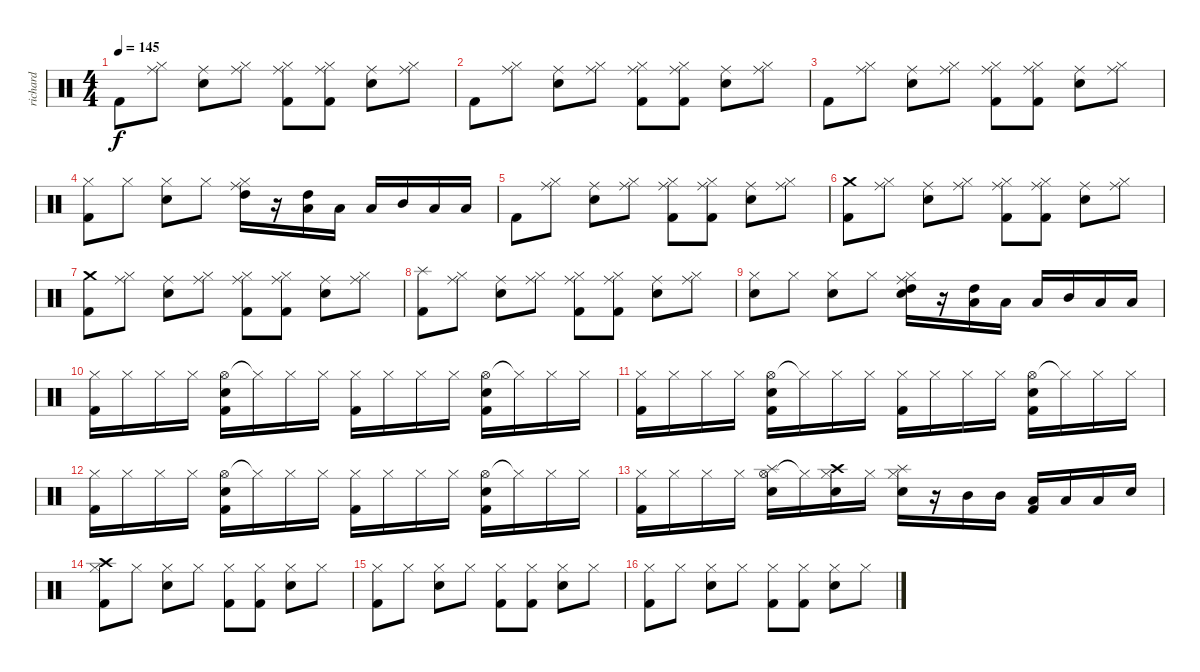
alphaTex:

\track ("richard" "richard") {instrument percussion}
\staff {score}
\articulation defaults
\ts (4 4)
\tempo 145
\clef neutral
\ks c "Kick (hit) 2".8{dy f}
("Ride (middle)" "Hi-Hat (closed)").8 ("Ride (middle)" "Snare (hit) 2").8 ("Ride (middle)" "Hi-Hat (closed)").8 ("Ride (middle)" "Kick (hit) 2" "Hi-Hat (closed)").8 ("Ride (middle)" "Kick (hit) 2" "Hi-Hat (closed)").8 ("Ride (middle)" "Snare (hit) 2").8 ("Ride (middle)" "Hi-Hat (closed)").8 |
"Kick (hit) 2".8 ("Ride (middle)" "Hi-Hat (closed)").8 ("Ride (middle)" "Snare (hit) 2").8 ("Ride (middle)" "Hi-Hat (closed)").8 ("Ride (middle)" "Kick (hit) 2" "Hi-Hat (closed)").8 ("Ride (middle)" "Kick (hit) 2" "Hi-Hat (closed)").8 ("Ride (middle)" "Snare (hit) 2").8 ("Ride (middle)" "Hi-Hat (closed)").8 |
"Kick (hit) 2".8 ("Ride (middle)" "Hi-Hat (closed)").8 ("Ride (middle)" "Snare (hit) 2").8 ("Ride (middle)" "Hi-Hat (closed)").8 ("Ride (middle)" "Kick (hit) 2" "Hi-Hat (closed)").8 ("Ride (middle)" "Kick (hit) 2" "Hi-Hat (closed)").8 ("Ride (middle)" "Snare (hit) 2").8 ("Ride (middle)" "Hi-Hat (closed)").8 |
("Hi-Hat (closed)" "Kick (hit) 2").8 "Hi-Hat (closed)".8 ("Hi-Hat (closed)" "Snare (hit) 2").8 "Hi-Hat (closed)".8 ("Hi-Hat (closed)" "Ride (middle)" "High Tom (hit)").16 r.16 ("High Tom (hit)" "Low Tom (hit)").16 "Low Tom (hit)".16 "Low Tom (hit)".16 "Mid Tom (hit)".16 "Low Floor Tom (hit)".16 "Low Floor Tom (hit)".16 |
"Kick (hit) 2".8 ("Ride (middle)" "Hi-Hat (closed)").8 ("Ride (middle)" "Snare (hit) 2").8 ("Ride (middle)" "Hi-Hat (closed)").8 ("Ride (middle)" "Kick (hit) 2" "Hi-Hat (closed)").8 ("Ride (middle)" "Kick (hit) 2" "Hi-Hat (closed)").8 ("Ride (middle)" "Snare (hit) 2").8 ("Ride (middle)" "Hi-Hat (closed)").8 |
("Kick (hit) 2" "Crash medium (hit)").8 ("Ride (middle)" "Hi-Hat (closed)").8 ("Ride (middle)" "Snare (hit) 2").8 ("Ride (middle)" "Hi-Hat (closed)").8 ("Ride (middle)" "Kick (hit) 2" "Hi-Hat (closed)").8 ("Ride (middle)" "Kick (hit) 2" "Hi-Hat (closed)").8 ("Ride (middle)" "Snare (hit) 2").8 ("Ride (middle)" "Hi-Hat (closed)").8 |
("Kick (hit) 2" "Crash medium (hit)").8 ("Ride (middle)" "Hi-Hat (closed)").8 ("Ride (middle)" "Snare (hit) 2").8 ("Ride (middle)" "Hi-Hat (closed)").8 ("Ride (middle)" "Kick (hit) 2" "Hi-Hat (closed)").8 ("Ride (middle)" "Kick (hit) 2" "Hi-Hat (closed)").8 ("Ride (middle)" "Snare (hit) 2").8 ("Ride (middle)" "Hi-Hat (closed)").8 |
("Kick (hit) 2" "Splash (hit)").8 ("Ride (middle)" "Hi-Hat (closed)").8 ("Ride (middle)" "Snare (hit) 2").8 ("Ride (middle)" "Hi-Hat (closed)").8 ("Ride (middle)" "Kick (hit) 2" "Hi-Hat (closed)").8 ("Ride (middle)" "Kick (hit) 2" "Hi-Hat (closed)").8 ("Ride (middle)" "Snare (hit) 2").8 ("Ride (middle)" "Hi-Hat (closed)").8 |
("Hi-Hat (closed)" "Snare (hit) 2").8 "Hi-Hat (closed)".8 ("Hi-Hat (closed)" "Snare (hit) 2").8 "Hi-Hat (closed)".8 ("Hi-Hat (closed)" "Ride (middle)" "High Tom (hit)" "Snare (hit) 2").16 r.16 ("High Tom (hit)" "Low Tom (hit)").16 "Low Tom (hit)".16 "Low Tom (hit)".16 "Mid Tom (hit)".16 "Low Floor Tom (hit)".16 "Low Floor Tom (hit)".16 |
("Hi-Hat (closed)" "Kick (hit) 2").16 "Hi-Hat (closed)".16 "Hi-Hat (closed)".16 "Hi-Hat (closed)".16 ("Hi-Hat (open)" "Kick (hit) 2" "Snare (hit) 2").16 "Hi-Hat (closed)"{t}.16 "Hi-Hat (closed)".16 "Hi-Hat (closed)".16 ("Hi-Hat (closed)" "Kick (hit) 2").16 "Hi-Hat (closed)".16 "Hi-Hat (closed)".16 "Hi-Hat (closed)".16 ("Hi-Hat (open)" "Kick (hit) 2" "Snare (hit) 2").16 "Hi-Hat (closed)"{t}.16 "Hi-Hat (closed)".16 "Hi-Hat (closed)".16 |
("Hi-Hat (closed)" "Kick (hit) 2").16 "Hi-Hat (closed)".16 "Hi-Hat (closed)".16 "Hi-Hat (closed)".16 ("Hi-Hat (open)" "Kick (hit) 2" "Snare (hit) 2").16 "Hi-Hat (closed)"{t}.16 "Hi-Hat (closed)".16 "Hi-Hat (closed)".16 ("Hi-Hat (closed)" "Kick (hit) 2").16 "Hi-Hat (closed)".16 "Hi-Hat (closed)".16 "Hi-Hat (closed)".16 ("Hi-Hat (open)" "Kick (hit) 2" "Snare (hit) 2").16 "Hi-Hat (closed)"{t}.16 "Hi-Hat (closed)".16 "Hi-Hat (closed)".16 |
("Hi-Hat (closed)" "Kick (hit) 2").16 "Hi-Hat (closed)".16 "Hi-Hat (closed)".16 "Hi-Hat (closed)".16 ("Hi-Hat (open)" "Kick (hit) 2" "Snare (hit) 2").16 "Hi-Hat (closed)"{t}.16 "Hi-Hat (closed)".16 "Hi-Hat (closed)".16 ("Hi-Hat (closed)" "Kick (hit) 2").16 "Hi-Hat (closed)".16 "Hi-Hat (closed)".16 "Hi-Hat (closed)".16 ("Hi-Hat (open)" "Kick (hit) 2" "Snare (hit) 2").16 "Hi-Hat (closed)"{t}.16 "Hi-Hat (closed)".16 "Hi-Hat (closed)".16 |
("Hi-Hat (closed)" "Kick (hit) 2").16 "Hi-Hat (closed)".16 "Hi-Hat (closed)".16 "Hi-Hat (closed)".16 ("Hi-Hat (open)" "Snare (hit) 2" "Splash (hit)").16 "Hi-Hat (closed)"{t}.16 ("Hi-Hat (closed)" "Snare (hit) 2" "Crash high (hit)").16 "Hi-Hat (closed)".16 ("Hi-Hat (closed)" "Snare (hit) 2" "Splash (hit)").16 r.16 "Mid Tom (hit)".16 "Mid Tom (hit)".16 ("Low Tom (hit)" "Kick (hit) 2").16 "Low Tom (hit)".16 "Low Floor Tom (hit)".16 "Snare (hit)".16 |
("Kick (hit) 2" "Hi-Hat (closed)" "Crash high (hit)").8 "Hi-Hat (closed)".8 ("Hi-Hat (closed)" "Snare (hit) 2").8 "Hi-Hat (closed)".8 ("Hi-Hat (closed)" "Kick (hit) 2").8 ("Hi-Hat (closed)" "Kick (hit) 2").8 ("Hi-Hat (closed)" "Snare (hit) 2").8 "Hi-Hat (closed)".8 |
("Kick (hit) 2" "Hi-Hat (closed)").8 "Hi-Hat (closed)".8 ("Hi-Hat (closed)" "Snare (hit) 2").8 "Hi-Hat (closed)".8 ("Hi-Hat (closed)" "Kick (hit) 2").8 ("Hi-Hat (closed)" "Kick (hit) 2").8 ("Hi-Hat (closed)" "Snare (hit) 2").8 "Hi-Hat (closed)".8 |
("Kick (hit) 2" "Hi-Hat (closed)").8 "Hi-Hat (closed)".8 ("Hi-Hat (closed)" "Snare (hit) 2").8 "Hi-Hat (closed)".8 ("Hi-Hat (closed)" "Kick (hit) 2").8 ("Hi-Hat (closed)" "Kick (hit) 2").8 ("Hi-Hat (closed)" "Snare (hit) 2").8 "Hi-Hat (closed)".8
